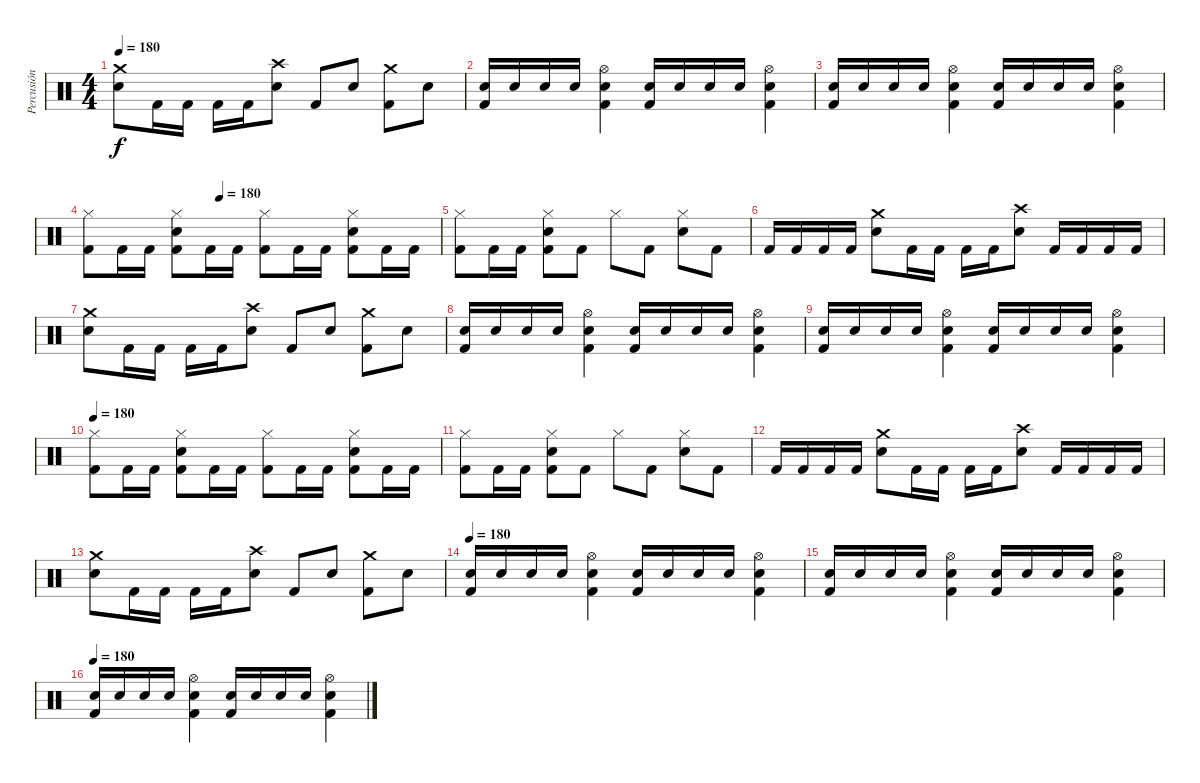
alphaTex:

\track ("Percusión" "Percusión") {instrument percussion}
\staff {score}
\articulation defaults
\ts (4 4)
\tempo 180
\clef neutral
\ks c
("Crash medium (hit)" "Electric Snare (hit)").8{dy f} "Kick (hit) 2".16 "Kick (hit) 2".16 "Kick (hit) 2".16 "Kick (hit) 2".16 ("Crash high (hit)" "Electric Snare (hit)").8 "Kick (hit) 2".8 "Electric Snare (hit)".8 ("Crash medium (hit)" "Kick (hit) 2").8 "Electric Snare (hit)".8 |
("Kick (hit) 2" "Electric Snare (hit)").16 "Electric Snare (hit)".16 "Electric Snare (hit)".16 "Electric Snare (hit)".16 ("Kick (hit) 2" "Electric Snare (hit)" "Hi-Hat (open)").4 ("Kick (hit) 2" "Electric Snare (hit)").16 "Electric Snare (hit)".16 "Electric Snare (hit)".16 "Electric Snare (hit)".16 ("Kick (hit) 2" "Electric Snare (hit)" "Hi-Hat (open)").4 |
("Kick (hit) 2" "Electric Snare (hit)").16 "Electric Snare (hit)".16 "Electric Snare (hit)".16 "Electric Snare (hit)".16 ("Kick (hit) 2" "Electric Snare (hit)" "Hi-Hat (open)").4 ("Kick (hit) 2" "Electric Snare (hit)").16 "Electric Snare (hit)".16 "Electric Snare (hit)".16 "Electric Snare (hit)".16 ("Kick (hit) 2" "Electric Snare (hit)" "Hi-Hat (open)").4 |
\tempo (180 0.375)
("Hi-Hat (closed)" "Kick (hit) 2").8 "Kick (hit) 2".16 "Kick (hit) 2".16 ("Hi-Hat (closed)" "Electric Snare (hit)" "Kick (hit) 2").8 "Kick (hit) 2".16 "Kick (hit) 2".16 ("Hi-Hat (closed)" "Kick (hit) 2").8 "Kick (hit) 2".16 "Kick (hit) 2".16 ("Hi-Hat (closed)" "Electric Snare (hit)" "Kick (hit) 2").8 "Kick (hit) 2".16 "Kick (hit) 2".16 |
("Hi-Hat (closed)" "Kick (hit) 2").8 "Kick (hit) 2".16 "Kick (hit) 2".16 ("Hi-Hat (closed)" "Electric Snare (hit)" "Kick (hit) 2").8 "Kick (hit) 2".8 "Hi-Hat (closed)".8 "Kick (hit) 2".8 ("Hi-Hat (closed)" "Electric Snare (hit)").8 "Kick (hit) 2".8 |
"Kick (hit) 2".16 "Kick (hit) 2".16 "Kick (hit) 2".16 "Kick (hit) 2".16 ("Crash medium (hit)" "Electric Snare (hit)").8 "Kick (hit) 2".16 "Kick (hit) 2".16 "Kick (hit) 2".16 "Kick (hit) 2".16 ("Crash high (hit)" "Electric Snare (hit)").8 "Kick (hit) 2".16 "Kick (hit) 2".16 "Kick (hit) 2".16 "Kick (hit) 2".16 |
("Crash medium (hit)" "Electric Snare (hit)").8 "Kick (hit) 2".16 "Kick (hit) 2".16 "Kick (hit) 2".16 "Kick (hit) 2".16 ("Crash high (hit)" "Electric Snare (hit)").8 "Kick (hit) 2".8 "Electric Snare (hit)".8 ("Crash medium (hit)" "Kick (hit) 2").8 "Electric Snare (hit)".8 |
("Kick (hit) 2" "Electric Snare (hit)").16 "Electric Snare (hit)".16 "Electric Snare (hit)".16 "Electric Snare (hit)".16 ("Kick (hit) 2" "Electric Snare (hit)" "Hi-Hat (open)").4 ("Kick (hit) 2" "Electric Snare (hit)").16 "Electric Snare (hit)".16 "Electric Snare (hit)".16 "Electric Snare (hit)".16 ("Kick (hit) 2" "Electric Snare (hit)" "Hi-Hat (open)").4 |
("Kick (hit) 2" "Electric Snare (hit)").16 "Electric Snare (hit)".16 "Electric Snare (hit)".16 "Electric Snare (hit)".16 ("Kick (hit) 2" "Electric Snare (hit)" "Hi-Hat (open)").4 ("Kick (hit) 2" "Electric Snare (hit)").16 "Electric Snare (hit)".16 "Electric Snare (hit)".16 "Electric Snare (hit)".16 ("Kick (hit) 2" "Electric Snare (hit)" "Hi-Hat (open)").4 |
\tempo 180
("Hi-Hat (closed)" "Kick (hit) 2").8 "Kick (hit) 2".16 "Kick (hit) 2".16 ("Hi-Hat (closed)" "Electric Snare (hit)" "Kick (hit) 2").8 "Kick (hit) 2".16 "Kick (hit) 2".16 ("Hi-Hat (closed)" "Kick (hit) 2").8 "Kick (hit) 2".16 "Kick (hit) 2".16 ("Hi-Hat (closed)" "Electric Snare (hit)" "Kick (hit) 2").8 "Kick (hit) 2".16 "Kick (hit) 2".16 |
("Hi-Hat (closed)" "Kick (hit) 2").8 "Kick (hit) 2".16 "Kick (hit) 2".16 ("Hi-Hat (closed)" "Electric Snare (hit)" "Kick (hit) 2").8 "Kick (hit) 2".8 "Hi-Hat (closed)".8 "Kick (hit) 2".8 ("Hi-Hat (closed)" "Electric Snare (hit)").8 "Kick (hit) 2".8 |
"Kick (hit) 2".16 "Kick (hit) 2".16 "Kick (hit) 2".16 "Kick (hit) 2".16 ("Crash medium (hit)" "Electric Snare (hit)").8 "Kick (hit) 2".16 "Kick (hit) 2".16 "Kick (hit) 2".16 "Kick (hit) 2".16 ("Crash high (hit)" "Electric Snare (hit)").8 "Kick (hit) 2".16 "Kick (hit) 2".16 "Kick (hit) 2".16 "Kick (hit) 2".16 |
("Crash medium (hit)" "Electric Snare (hit)").8 "Kick (hit) 2".16 "Kick (hit) 2".16 "Kick (hit) 2".16 "Kick (hit) 2".16 ("Crash high (hit)" "Electric Snare (hit)").8 "Kick (hit) 2".8 "Electric Snare (hit)".8 ("Crash medium (hit)" "Kick (hit) 2").8 "Electric Snare (hit)".8 |
\tempo 180
("Kick (hit) 2" "Electric Snare (hit)").16 "Electric Snare (hit)".16 "Electric Snare (hit)".16 "Electric Snare (hit)".16 ("Kick (hit) 2" "Electric Snare (hit)" "Hi-Hat (open)").4 ("Kick (hit) 2" "Electric Snare (hit)").16 "Electric Snare (hit)".16 "Electric Snare (hit)".16 "Electric Snare (hit)".16 ("Kick (hit) 2" "Electric Snare (hit)" "Hi-Hat (open)").4 |
("Kick (hit) 2" "Electric Snare (hit)").16 "Electric Snare (hit)".16 "Electric Snare (hit)".16 "Electric Snare (hit)".16 ("Kick (hit) 2" "Electric Snare (hit)" "Hi-Hat (open)").4 ("Kick (hit) 2" "Electric Snare (hit)").16 "Electric Snare (hit)".16 "Electric Snare (hit)".16 "Electric Snare (hit)".16 ("Kick (hit) 2" "Electric Snare (hit)" "Hi-Hat (open)").4 |
\tempo 180
("Kick (hit) 2" "Electric Snare (hit)").16 "Electric Snare (hit)".16 "Electric Snare (hit)".16 "Electric Snare (hit)".16 ("Kick (hit) 2" "Electric Snare (hit)" "Hi-Hat (open)").4 ("Kick (hit) 2" "Electric Snare (hit)").16 "Electric Snare (hit)".16 "Electric Snare (hit)".16 "Electric Snare (hit)".16 ("Kick (hit) 2" "Electric Snare (hit)" "Hi-Hat (open)").4
